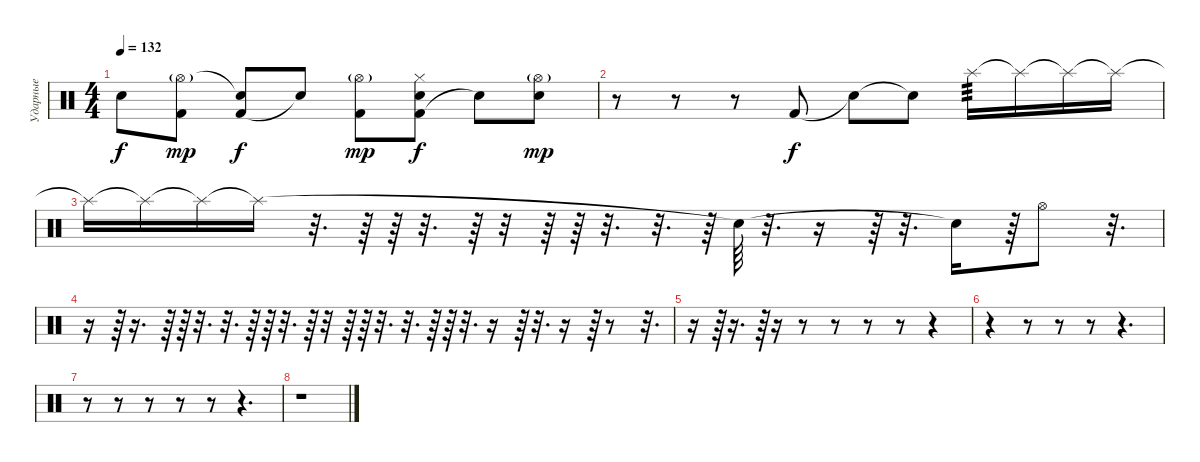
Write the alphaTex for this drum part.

\track ("Ударные" "Ударные") {instrument percussion}
\staff {score}
\articulation defaults
\ts (4 4)
\tempo 132
\clef neutral
\ks c "Snare (hit)"{t}.8{dy f}
("Kick (hit) 2" "Hi-Hat (open)"{g}).8{dy mp} ("Kick (hit) 2" "Snare (hit)"{t}).8{dy f} "Snare (hit)"{t}.8 ("Kick (hit) 2" "Hi-Hat (open)"{g}).8{dy mp} ("Kick (hit) 2" "Hi-Hat (closed)" "Snare (hit)"{t}).8{dy f} "Snare (hit) 2"{t}.8 ("Snare (hit) 2" "Hi-Hat (open)"{g}).8{dy mp} |
r.8 r.8 r.8 "Kick (hit) 2".8{dy f} "Snare (hit)"{t}.8 "Snare (hit)"{t}.8 "Splash (hit)".16{tp 3 volume 1} "Splash (hit)"{t}.16 "Splash (hit)"{t}.16 "Splash (hit)"{t}.16 |
"Splash (hit)"{t}.16 "Splash (hit)"{t}.16 "Splash (hit)"{t}.16 "Splash (hit)"{t}.16 r.32{d} r.64 r.64 r.32{d} r.64 r.32 r.64 r.64 r.32{d} r.32{d} r.64 "Snare (hit)"{t}.64 r.32{d} r.16 r.64 r.32{d} "Snare (hit)"{t}.16 r.64 "Hi-Hat (open)".8 r.32{d} |
r.16 r.64 r.16{d} r.64 r.64 r.32{d} r.32{d} r.64 r.64 r.32{d} r.64 r.32 r.64 r.64 r.32{d} r.32{d} r.64 r.64 r.32{d} r.16 r.64 r.32{d} r.16 r.64 r.8 r.32{d} |
r.16 r.64 r.16{d} r.64 r.16 r.8 r.8 r.8 r.8 r.4 |
r.4 r.8 r.8 r.8 r.4{d} |
r.8 r.8 r.8 r.8 r.8 r.4{d} |
r.1
